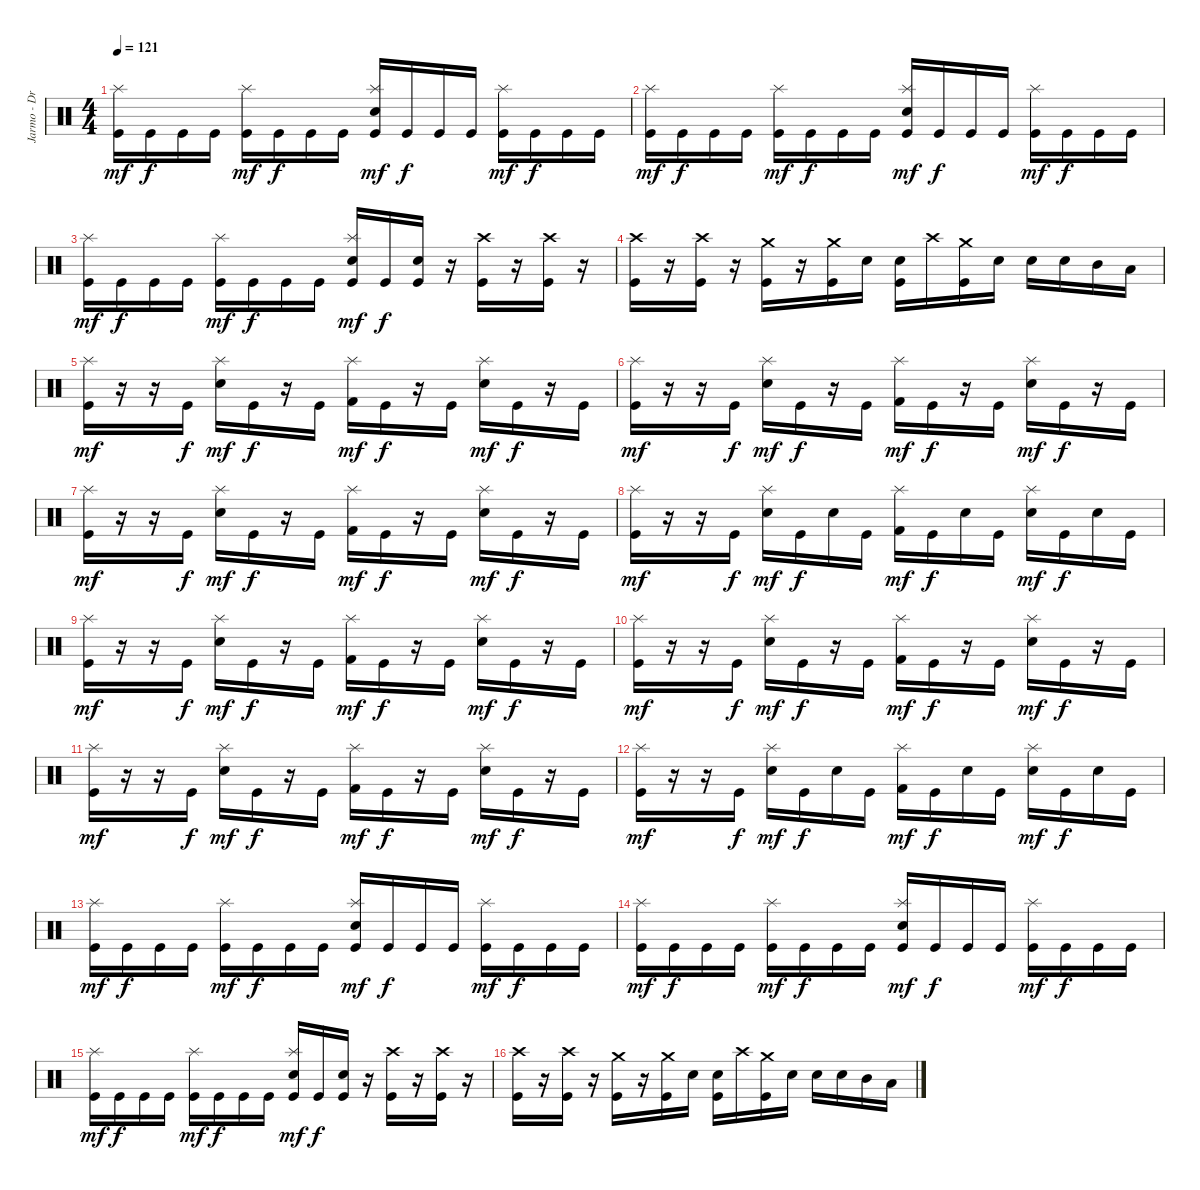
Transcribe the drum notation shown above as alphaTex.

\track ("Jarmo - Drums" "Jarmo - Dr") {instrument percussion}
\staff {score}
\articulation defaults
\ts (4 4)
\tempo 121
\clef neutral
\ks c
("Kick (hit)" "Splash (hit)").16{dy mf} "Kick (hit)".16{dy f} "Kick (hit)".16 "Kick (hit)".16 ("Kick (hit)" "Splash (hit)").16{dy mf} "Kick (hit)".16{dy f} "Kick (hit)".16 "Kick (hit)".16 ("Kick (hit)" "Electric Snare (hit)" "Splash (hit)").16{dy mf} "Kick (hit)".16{dy f} "Kick (hit)".16 "Kick (hit)".16 ("Kick (hit)" "Splash (hit)").16{dy mf} "Kick (hit)".16{dy f} "Kick (hit)".16 "Kick (hit)".16 |
("Kick (hit)" "Splash (hit)").16{dy mf} "Kick (hit)".16{dy f} "Kick (hit)".16 "Kick (hit)".16 ("Kick (hit)" "Splash (hit)").16{dy mf} "Kick (hit)".16{dy f} "Kick (hit)".16 "Kick (hit)".16 ("Kick (hit)" "Electric Snare (hit)" "Splash (hit)").16{dy mf} "Kick (hit)".16{dy f} "Kick (hit)".16 "Kick (hit)".16 ("Kick (hit)" "Splash (hit)").16{dy mf} "Kick (hit)".16{dy f} "Kick (hit)".16 "Kick (hit)".16 |
("Kick (hit)" "Splash (hit)").16{dy mf} "Kick (hit)".16{dy f} "Kick (hit)".16 "Kick (hit)".16 ("Kick (hit)" "Splash (hit)").16{dy mf} "Kick (hit)".16{dy f} "Kick (hit)".16 "Kick (hit)".16 ("Kick (hit)" "Electric Snare (hit)" "Splash (hit)").16{dy mf} "Kick (hit)".16{dy f} ("Kick (hit)" "Electric Snare (hit)").16 r.16 ("Kick (hit)" "Crash high (hit)").16 r.16 ("Kick (hit)" "Crash high (hit)").16 r.16 |
("Kick (hit)" "Crash high (hit)").16 r.16 ("Kick (hit)" "Crash high (hit)").16 r.16 ("Kick (hit)" "Crash medium (hit)").16 r.16 ("Kick (hit)" "Crash medium (hit)").16 "Electric Snare (hit)".16 ("Kick (hit)" "Electric Snare (hit)").16 "Crash high (hit)".16 ("Kick (hit)" "Crash medium (hit)").16 "Electric Snare (hit)".16 "Electric Snare (hit)".16 "Electric Snare (hit)".16 "Mid Tom (hit)".16 "Low Tom (hit)".16 |
("Kick (hit)" "Splash (hit)").16{dy mf} r.16 r.16 "Kick (hit)".16{dy f} ("Electric Snare (hit)" "Splash (hit)").16{dy mf} "Kick (hit)".16{dy f} r.16 "Kick (hit)".16 ("Kick (hit) 2" "Splash (hit)").16{dy mf} "Kick (hit)".16{dy f} r.16 "Kick (hit)".16 ("Electric Snare (hit)" "Splash (hit)").16{dy mf} "Kick (hit)".16{dy f} r.16 "Kick (hit)".16 |
("Kick (hit)" "Splash (hit)").16{dy mf} r.16 r.16 "Kick (hit)".16{dy f} ("Electric Snare (hit)" "Splash (hit)").16{dy mf} "Kick (hit)".16{dy f} r.16 "Kick (hit)".16 ("Kick (hit) 2" "Splash (hit)").16{dy mf} "Kick (hit)".16{dy f} r.16 "Kick (hit)".16 ("Electric Snare (hit)" "Splash (hit)").16{dy mf} "Kick (hit)".16{dy f} r.16 "Kick (hit)".16 |
("Kick (hit)" "Splash (hit)").16{dy mf} r.16 r.16 "Kick (hit)".16{dy f} ("Electric Snare (hit)" "Splash (hit)").16{dy mf} "Kick (hit)".16{dy f} r.16 "Kick (hit)".16 ("Kick (hit) 2" "Splash (hit)").16{dy mf} "Kick (hit)".16{dy f} r.16 "Kick (hit)".16 ("Electric Snare (hit)" "Splash (hit)").16{dy mf} "Kick (hit)".16{dy f} r.16 "Kick (hit)".16 |
("Kick (hit)" "Splash (hit)").16{dy mf} r.16 r.16 "Kick (hit)".16{dy f} ("Electric Snare (hit)" "Splash (hit)").16{dy mf} "Kick (hit)".16{dy f} "Electric Snare (hit)".16 "Kick (hit)".16 ("Kick (hit) 2" "Splash (hit)").16{dy mf} "Kick (hit)".16{dy f} "Electric Snare (hit)".16 "Kick (hit)".16 ("Electric Snare (hit)" "Splash (hit)").16{dy mf} "Kick (hit)".16{dy f} "Electric Snare (hit)".16 "Kick (hit)".16 |
("Kick (hit)" "Splash (hit)").16{dy mf} r.16 r.16 "Kick (hit)".16{dy f} ("Electric Snare (hit)" "Splash (hit)").16{dy mf} "Kick (hit)".16{dy f} r.16 "Kick (hit)".16 ("Kick (hit) 2" "Splash (hit)").16{dy mf} "Kick (hit)".16{dy f} r.16 "Kick (hit)".16 ("Electric Snare (hit)" "Splash (hit)").16{dy mf} "Kick (hit)".16{dy f} r.16 "Kick (hit)".16 |
("Kick (hit)" "Splash (hit)").16{dy mf} r.16 r.16 "Kick (hit)".16{dy f} ("Electric Snare (hit)" "Splash (hit)").16{dy mf} "Kick (hit)".16{dy f} r.16 "Kick (hit)".16 ("Kick (hit) 2" "Splash (hit)").16{dy mf} "Kick (hit)".16{dy f} r.16 "Kick (hit)".16 ("Electric Snare (hit)" "Splash (hit)").16{dy mf} "Kick (hit)".16{dy f} r.16 "Kick (hit)".16 |
("Kick (hit)" "Splash (hit)").16{dy mf} r.16 r.16 "Kick (hit)".16{dy f} ("Electric Snare (hit)" "Splash (hit)").16{dy mf} "Kick (hit)".16{dy f} r.16 "Kick (hit)".16 ("Kick (hit) 2" "Splash (hit)").16{dy mf} "Kick (hit)".16{dy f} r.16 "Kick (hit)".16 ("Electric Snare (hit)" "Splash (hit)").16{dy mf} "Kick (hit)".16{dy f} r.16 "Kick (hit)".16 |
("Kick (hit)" "Splash (hit)").16{dy mf} r.16 r.16 "Kick (hit)".16{dy f} ("Electric Snare (hit)" "Splash (hit)").16{dy mf} "Kick (hit)".16{dy f} "Electric Snare (hit)".16 "Kick (hit)".16 ("Kick (hit) 2" "Splash (hit)").16{dy mf} "Kick (hit)".16{dy f} "Electric Snare (hit)".16 "Kick (hit)".16 ("Electric Snare (hit)" "Splash (hit)").16{dy mf} "Kick (hit)".16{dy f} "Electric Snare (hit)".16 "Kick (hit)".16 |
("Kick (hit)" "Splash (hit)").16{dy mf} "Kick (hit)".16{dy f} "Kick (hit)".16 "Kick (hit)".16 ("Kick (hit)" "Splash (hit)").16{dy mf} "Kick (hit)".16{dy f} "Kick (hit)".16 "Kick (hit)".16 ("Kick (hit)" "Electric Snare (hit)" "Splash (hit)").16{dy mf} "Kick (hit)".16{dy f} "Kick (hit)".16 "Kick (hit)".16 ("Kick (hit)" "Splash (hit)").16{dy mf} "Kick (hit)".16{dy f} "Kick (hit)".16 "Kick (hit)".16 |
("Kick (hit)" "Splash (hit)").16{dy mf} "Kick (hit)".16{dy f} "Kick (hit)".16 "Kick (hit)".16 ("Kick (hit)" "Splash (hit)").16{dy mf} "Kick (hit)".16{dy f} "Kick (hit)".16 "Kick (hit)".16 ("Kick (hit)" "Electric Snare (hit)" "Splash (hit)").16{dy mf} "Kick (hit)".16{dy f} "Kick (hit)".16 "Kick (hit)".16 ("Kick (hit)" "Splash (hit)").16{dy mf} "Kick (hit)".16{dy f} "Kick (hit)".16 "Kick (hit)".16 |
("Kick (hit)" "Splash (hit)").16{dy mf} "Kick (hit)".16{dy f} "Kick (hit)".16 "Kick (hit)".16 ("Kick (hit)" "Splash (hit)").16{dy mf} "Kick (hit)".16{dy f} "Kick (hit)".16 "Kick (hit)".16 ("Kick (hit)" "Electric Snare (hit)" "Splash (hit)").16{dy mf} "Kick (hit)".16{dy f} ("Kick (hit)" "Electric Snare (hit)").16 r.16 ("Kick (hit)" "Crash high (hit)").16 r.16 ("Kick (hit)" "Crash high (hit)").16 r.16 |
("Kick (hit)" "Crash high (hit)").16 r.16 ("Kick (hit)" "Crash high (hit)").16 r.16 ("Kick (hit)" "Crash medium (hit)").16 r.16 ("Kick (hit)" "Crash medium (hit)").16 "Electric Snare (hit)".16 ("Kick (hit)" "Electric Snare (hit)").16 "Crash high (hit)".16 ("Kick (hit)" "Crash medium (hit)").16 "Electric Snare (hit)".16 "Electric Snare (hit)".16 "Electric Snare (hit)".16 "Mid Tom (hit)".16 "Low Tom (hit)".16
